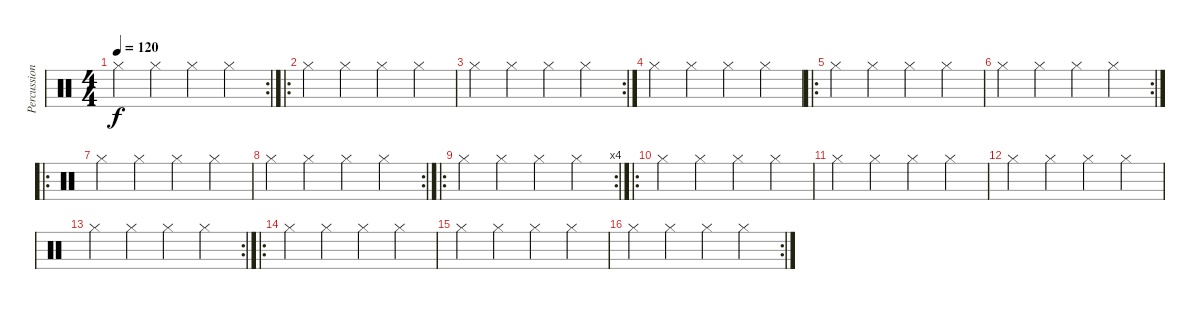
\track ("Percussioni" "Percussion") {instrument percussion}
\staff {score}
\articulation defaults
\rc 2
\ts (4 4)
\tempo 120
\clef neutral
\ks c "Hi-Hat (closed)".4{dy f} "Hi-Hat (closed)".4 "Hi-Hat (closed)".4 "Hi-Hat (closed)".4
|
\ro "Hi-Hat (closed)".4 "Hi-Hat (closed)".4 "Hi-Hat (closed)".4 "Hi-Hat (closed)".4
|
\rc 2 "Hi-Hat (closed)".4 "Hi-Hat (closed)".4 "Hi-Hat (closed)".4 "Hi-Hat (closed)".4
|
"Hi-Hat (closed)".4 "Hi-Hat (closed)".4 "Hi-Hat (closed)".4 "Hi-Hat (closed)".4 |
\ro "Hi-Hat (closed)".4 "Hi-Hat (closed)".4 "Hi-Hat (closed)".4 "Hi-Hat (closed)".4
|
\rc 2 "Hi-Hat (closed)".4 "Hi-Hat (closed)".4 "Hi-Hat (closed)".4 "Hi-Hat (closed)".4
|
\ro "Hi-Hat (closed)".4 "Hi-Hat (closed)".4 "Hi-Hat (closed)".4 "Hi-Hat (closed)".4
|
\rc 2 "Hi-Hat (closed)".4 "Hi-Hat (closed)".4 "Hi-Hat (closed)".4 "Hi-Hat (closed)".4
|
\ro
\rc 4 "Hi-Hat (closed)".4 "Hi-Hat (closed)".4 "Hi-Hat (closed)".4 "Hi-Hat (closed)".4
|
\ro "Hi-Hat (closed)".4 "Hi-Hat (closed)".4 "Hi-Hat (closed)".4 "Hi-Hat (closed)".4
|
"Hi-Hat (closed)".4 "Hi-Hat (closed)".4 "Hi-Hat (closed)".4 "Hi-Hat (closed)".4 |
"Hi-Hat (closed)".4 "Hi-Hat (closed)".4 "Hi-Hat (closed)".4 "Hi-Hat (closed)".4 |
\rc 2 "Hi-Hat (closed)".4 "Hi-Hat (closed)".4 "Hi-Hat (closed)".4 "Hi-Hat (closed)".4
|
\ro "Hi-Hat (closed)".4 "Hi-Hat (closed)".4 "Hi-Hat (closed)".4 "Hi-Hat (closed)".4
|
"Hi-Hat (closed)".4 "Hi-Hat (closed)".4 "Hi-Hat (closed)".4 "Hi-Hat (closed)".4 |
\rc 2 "Hi-Hat (closed)".4 "Hi-Hat (closed)".4 "Hi-Hat (closed)".4 "Hi-Hat (closed)".4
